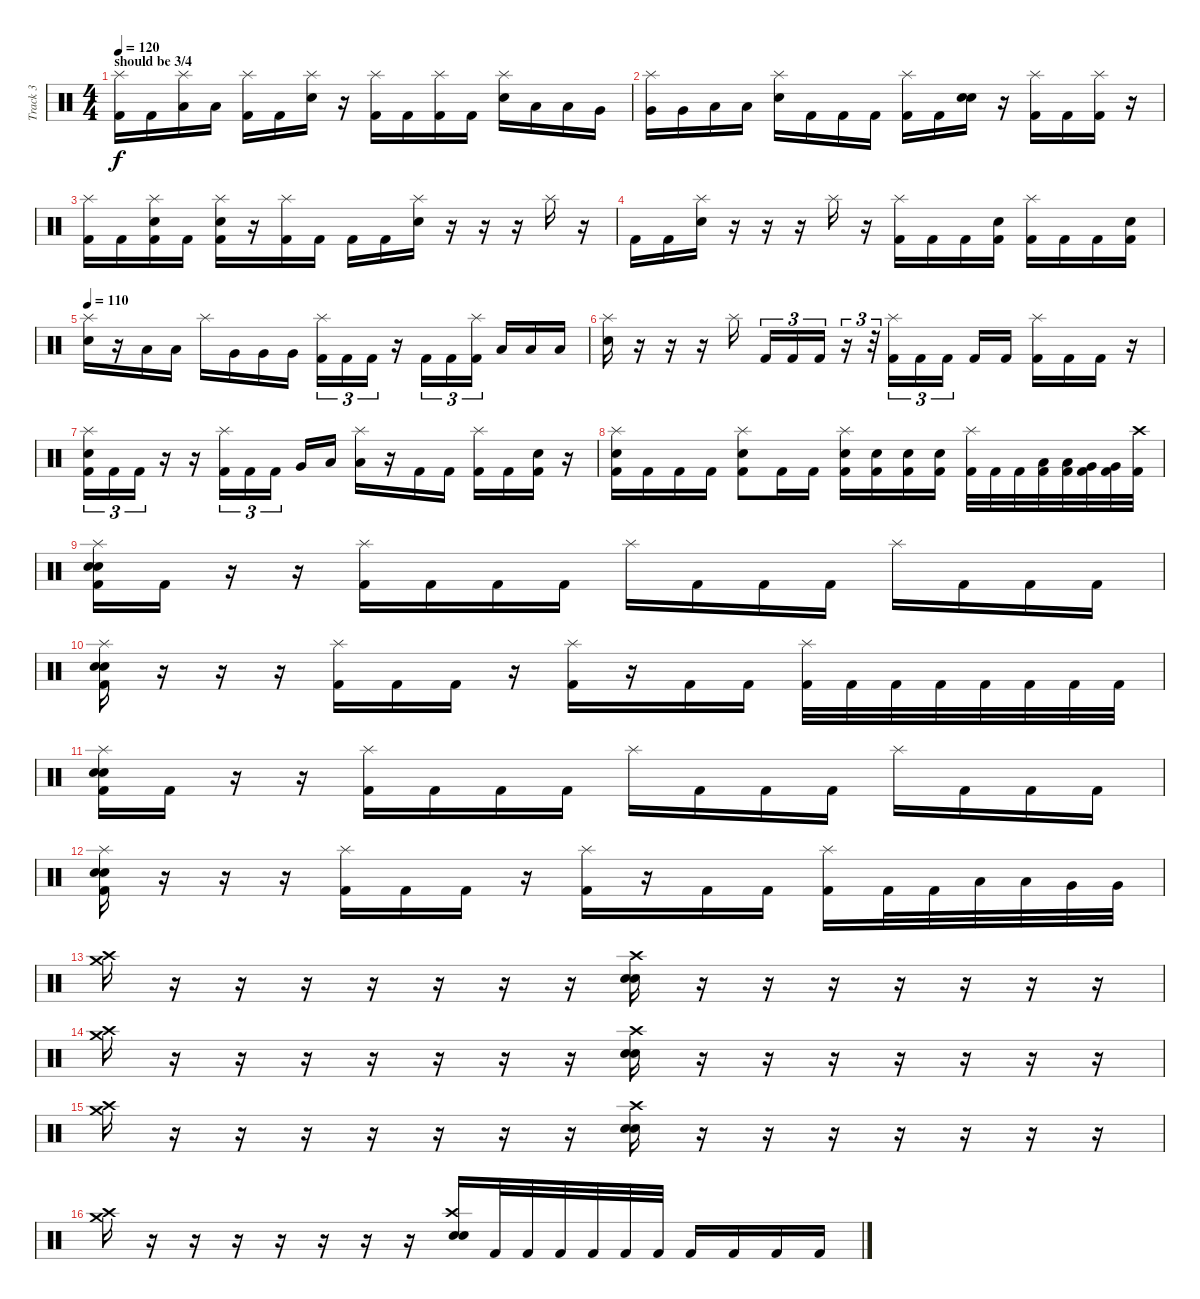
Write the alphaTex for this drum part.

\track ("Track 3" "Track 3") {instrument percussion}
\staff {score}
\articulation defaults
\ts (4 4)
\section ("" "should be 3/4")
\tempo 120
\clef neutral
\ks c
("Splash (hit)" "Kick (hit) 2").16{dy f} "Kick (hit) 2".16 ("Splash (hit)" "Low Tom (hit)").16 "Low Tom (hit)".16 ("Splash (hit)" "Kick (hit) 2").16 "Kick (hit) 2".16 ("Splash (hit)" "Electric Snare (hit)").16 r.16 ("Splash (hit)" "Kick (hit) 2").16 "Kick (hit) 2".16 ("Splash (hit)" "Kick (hit) 2").16 "Kick (hit) 2".16 ("Splash (hit)" "Electric Snare (hit)").16 "Low Tom (hit)".16 "Low Tom (hit)".16 "Very Low Tom (hit)".16 |
("Splash (hit)" "Very Low Tom (hit)").16 "Very Low Tom (hit)".16 "Low Tom (hit)".16 "Low Tom (hit)".16 ("Splash (hit)" "Electric Snare (hit)").16 "Kick (hit) 2".16 "Kick (hit) 2".16 "Kick (hit) 2".16 ("Splash (hit)" "Kick (hit) 2").16 "Kick (hit) 2".16 ("Electric Snare (hit)" "Electric Snare (hit)").16 r.16 ("Splash (hit)" "Kick (hit) 2").16 "Kick (hit) 2".16 ("Splash (hit)" "Kick (hit) 2").16 r.16 |
("Splash (hit)" "Kick (hit) 2").16 "Kick (hit) 2".16 ("Electric Snare (hit)" "Splash (hit)" "Kick (hit) 2").16 "Kick (hit) 2".16 ("Electric Snare (hit)" "Splash (hit)" "Kick (hit) 2").16 r.16 ("Splash (hit)" "Kick (hit) 2").16 "Kick (hit) 2".16 "Kick (hit) 2".16 "Kick (hit) 2".16 ("Splash (hit)" "Electric Snare (hit)").16 r.16 r.16 r.16 "Splash (hit)".16 r.16 |
"Kick (hit) 2".16 "Kick (hit) 2".16 ("Splash (hit)" "Electric Snare (hit)").16 r.16 r.16 r.16 "Splash (hit)".16 r.16 ("Splash (hit)" "Kick (hit) 2").16 "Kick (hit) 2".16 "Kick (hit) 2".16 ("Electric Snare (hit)" "Kick (hit) 2").16 ("Splash (hit)" "Kick (hit) 2").16 "Kick (hit) 2".16 "Kick (hit) 2".16 ("Electric Snare (hit)" "Kick (hit) 2").16 |
\tempo 110
("Splash (hit)" "Electric Snare (hit)").16 r.16 "Low Tom (hit)".16 "Low Tom (hit)".16 "Splash (hit)".16 "Very Low Tom (hit)".16 "Very Low Tom (hit)".16 "Very Low Tom (hit)".16 ("Splash (hit)" "Kick (hit) 2").16{tu (3 2)} "Kick (hit) 2".16{tu (3 2)} "Kick (hit) 2".16{tu (3 2)} r.16 "Kick (hit) 2".16{tu (3 2)} "Kick (hit) 2".16{tu (3 2)} ("Splash (hit)" "Kick (hit) 2").16{tu (3 2)} "Low Floor Tom (hit)".16 "Low Floor Tom (hit)".16 "Low Floor Tom (hit)".16 |
("Splash (hit)" "Electric Snare (hit)").16 r.16 r.16 r.16 "Splash (hit)".16 "Kick (hit) 2".16{tu (3 2)} "Kick (hit) 2".16{tu (3 2)} "Kick (hit) 2".16{tu (3 2)} r.16{tu (3 2)} r.32{tu (3 2)} ("Splash (hit)" "Kick (hit) 2").16{tu (3 2)} "Kick (hit) 2".16{tu (3 2)} "Kick (hit) 2".16{tu (3 2)} "Kick (hit) 2".16 "Kick (hit) 2".16 ("Splash (hit)" "Kick (hit) 2").16 "Kick (hit) 2".16 "Kick (hit) 2".16 r.16 |
("Splash (hit)" "Kick (hit) 2" "Electric Snare (hit)").16{tu (3 2)} "Kick (hit) 2".16{tu (3 2)} "Kick (hit) 2".16{tu (3 2)} r.16 r.16 ("Splash (hit)" "Kick (hit) 2").16{tu (3 2)} "Kick (hit) 2".16{tu (3 2)} "Kick (hit) 2".16{tu (3 2)} "Very Low Tom (hit)".16 "Low Tom (hit)".16 ("Splash (hit)" "Low Tom (hit)").16 r.16 "Kick (hit) 2".16 "Kick (hit) 2".16 ("Splash (hit)" "Kick (hit) 2").16 "Kick (hit) 2".16 ("Electric Snare (hit)" "Kick (hit) 2").16 r.16 |
("Electric Snare (hit)" "Splash (hit)" "Kick (hit) 2").16 "Kick (hit) 2".16 "Kick (hit) 2".16 "Kick (hit) 2".16 ("Splash (hit)" "Electric Snare (hit)" "Kick (hit) 2").8 "Kick (hit) 2".16 "Kick (hit) 2".16 ("Splash (hit)" "Electric Snare (hit)" "Kick (hit) 2").16 ("Electric Snare (hit)" "Kick (hit) 2").16 ("Electric Snare (hit)" "Kick (hit) 2").16 ("Electric Snare (hit)" "Kick (hit) 2").16 ("Splash (hit)" "Kick (hit) 2").32 "Kick (hit) 2".32 "Kick (hit) 2".32 ("Low Tom (hit)" "Kick (hit) 2").32 ("Low Tom (hit)" "Kick (hit) 2").32 ("Very Low Tom (hit)" "Kick (hit) 2").32 ("Very Low Tom (hit)" "Kick (hit) 2").32 ("Crash high (hit)" "Kick (hit) 2").32 |
("Electric Snare (hit)" "Splash (hit)" "Snare (hit) 2" "Kick (hit) 2").16 "Kick (hit) 2".16 r.16 r.16 ("Splash (hit)" "Kick (hit) 2").16 "Kick (hit) 2".16 "Kick (hit) 2".16 "Kick (hit) 2".16 "Splash (hit)".16 "Kick (hit) 2".16 "Kick (hit) 2".16 "Kick (hit) 2".16 "Splash (hit)".16 "Kick (hit) 2".16 "Kick (hit) 2".16 "Kick (hit) 2".16 |
("Splash (hit)" "Kick (hit) 2" "Snare (hit) 2" "Electric Snare (hit)").16 r.16 r.16 r.16 ("Splash (hit)" "Kick (hit) 2").16 "Kick (hit) 2".16 "Kick (hit) 2".16 r.16 ("Splash (hit)" "Kick (hit) 2").16 r.16 "Kick (hit) 2".16 "Kick (hit) 2".16 ("Splash (hit)" "Kick (hit) 2").32 "Kick (hit) 2".32 "Kick (hit) 2".32 "Kick (hit) 2".32 "Kick (hit) 2".32 "Kick (hit) 2".32 "Kick (hit) 2".32 "Kick (hit) 2".32 |
("Electric Snare (hit)" "Splash (hit)" "Snare (hit) 2" "Kick (hit) 2").16 "Kick (hit) 2".16 r.16 r.16 ("Splash (hit)" "Kick (hit) 2").16 "Kick (hit) 2".16 "Kick (hit) 2".16 "Kick (hit) 2".16 "Splash (hit)".16 "Kick (hit) 2".16 "Kick (hit) 2".16 "Kick (hit) 2".16 "Splash (hit)".16 "Kick (hit) 2".16 "Kick (hit) 2".16 "Kick (hit) 2".16 |
("Snare (hit) 2" "Kick (hit) 2" "Splash (hit)" "Electric Snare (hit)").16 r.16 r.16 r.16 ("Splash (hit)" "Kick (hit) 2").16 "Kick (hit) 2".16 "Kick (hit) 2".16 r.16 ("Splash (hit)" "Kick (hit) 2").16 r.16 "Kick (hit) 2".16 "Kick (hit) 2".16 ("Splash (hit)" "Kick (hit) 2").16 "Kick (hit) 2".32 "Kick (hit) 2".32 "Low Tom (hit)".32 "Low Tom (hit)".32 "Very Low Tom (hit)".32 "Very Low Tom (hit)".32 |
("Crash high (hit)" "Crash medium (hit)").16 r.16 r.16 r.16 r.16 r.16 r.16 r.16 ("Crash high (hit)" "Snare (hit) 2" "Electric Snare (hit)").16 r.16 r.16 r.16 r.16 r.16 r.16 r.16 |
("Crash high (hit)" "Crash medium (hit)").16 r.16 r.16 r.16 r.16 r.16 r.16 r.16 ("Crash high (hit)" "Snare (hit) 2" "Electric Snare (hit)").16 r.16 r.16 r.16 r.16 r.16 r.16 r.16 |
("Crash high (hit)" "Crash medium (hit)").16 r.16 r.16 r.16 r.16 r.16 r.16 r.16 ("Crash high (hit)" "Snare (hit) 2" "Electric Snare (hit)").16 r.16 r.16 r.16 r.16 r.16 r.16 r.16 |
("Crash high (hit)" "Crash medium (hit)").16 r.16 r.16 r.16 r.16 r.16 r.16 r.16 ("Crash high (hit)" "Snare (hit) 2" "Electric Snare (hit)").16 "Kick (hit) 2".32 "Kick (hit) 2".32 "Kick (hit) 2".32 "Kick (hit) 2".32 "Kick (hit) 2".32 "Kick (hit) 2".32 "Kick (hit) 2".16 "Kick (hit) 2".16 "Kick (hit) 2".16 "Kick (hit) 2".16
